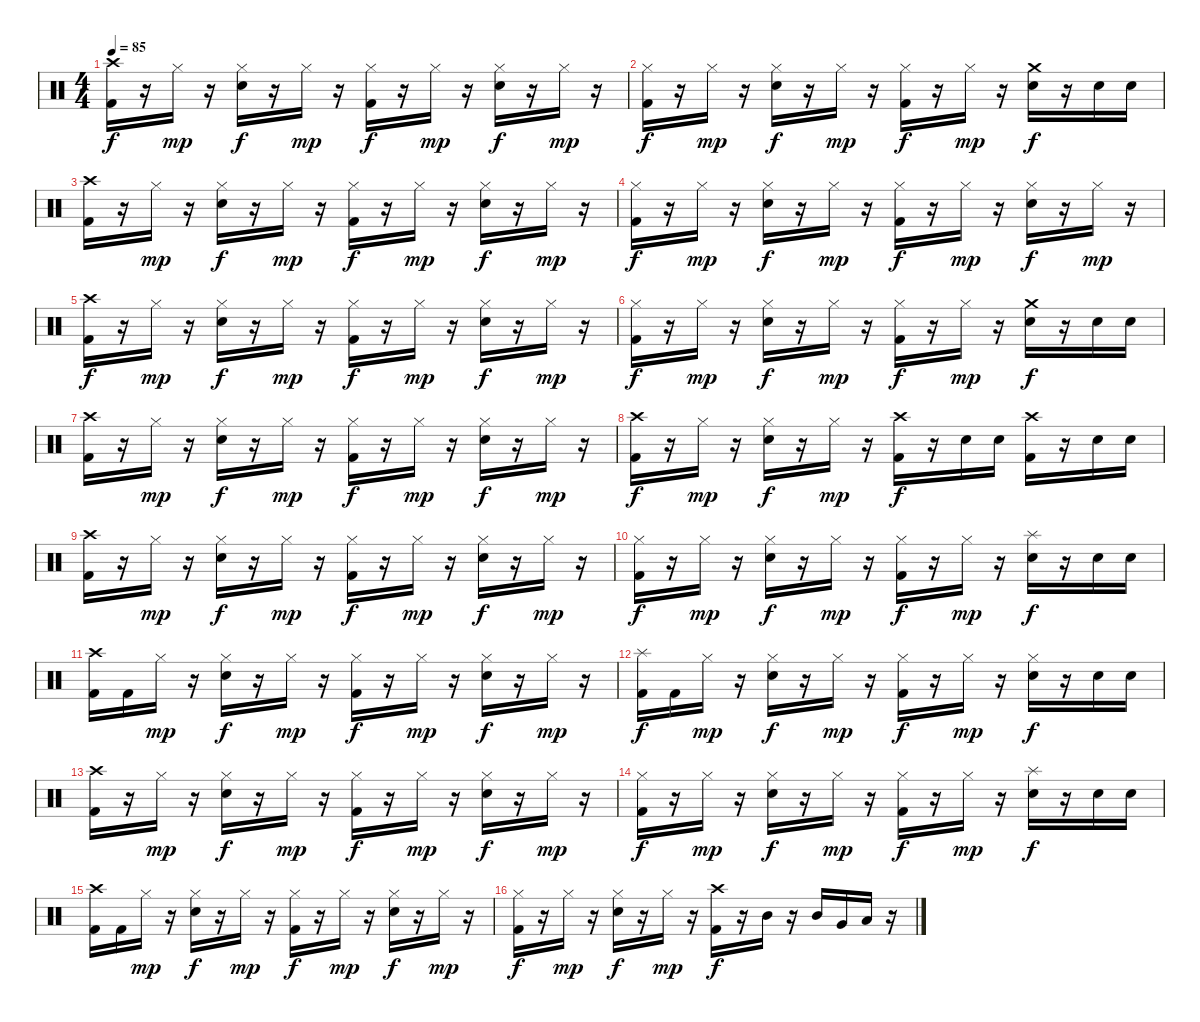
\track ("              Stefff" "          ") {instrument percussion}
\staff {score}
\articulation defaults
\ts (4 4)
\tempo 85
\clef neutral
\ks c
("Kick (hit) 2" "Crash high (hit)").16{dy f} r.16 "Hi-Hat (closed)".16{dy mp} r.16 ("Hi-Hat (closed)" "Snare (hit) 2").16{dy f} r.16 "Hi-Hat (closed)".16{dy mp} r.16 ("Hi-Hat (closed)" "Kick (hit) 2").16{dy f} r.16 "Hi-Hat (closed)".16{dy mp} r.16 ("Hi-Hat (closed)" "Snare (hit) 2").16{dy f} r.16 "Hi-Hat (closed)".16{dy mp} r.16 |
("Kick (hit) 2" "Hi-Hat (closed)").16{dy f} r.16 "Hi-Hat (closed)".16{dy mp} r.16 ("Hi-Hat (closed)" "Snare (hit) 2").16{dy f} r.16 "Hi-Hat (closed)".16{dy mp} r.16 ("Hi-Hat (closed)" "Kick (hit) 2").16{dy f} r.16 "Hi-Hat (closed)".16{dy mp} r.16 ("Crash medium (hit)" "Snare (hit) 2").16{dy f} r.16 "Snare (hit) 2".16 "Snare (hit) 2".16 |
("Kick (hit) 2" "Crash high (hit)").16 r.16 "Hi-Hat (closed)".16{dy mp} r.16 ("Hi-Hat (closed)" "Snare (hit) 2").16{dy f} r.16 "Hi-Hat (closed)".16{dy mp} r.16 ("Hi-Hat (closed)" "Kick (hit) 2").16{dy f} r.16 "Hi-Hat (closed)".16{dy mp} r.16 ("Hi-Hat (closed)" "Snare (hit) 2").16{dy f} r.16 "Hi-Hat (closed)".16{dy mp} r.16 |
("Kick (hit) 2" "Hi-Hat (closed)").16{dy f} r.16 "Hi-Hat (closed)".16{dy mp} r.16 ("Hi-Hat (closed)" "Snare (hit) 2").16{dy f} r.16 "Hi-Hat (closed)".16{dy mp} r.16 ("Hi-Hat (closed)" "Kick (hit) 2").16{dy f} r.16 "Hi-Hat (closed)".16{dy mp} r.16 ("Hi-Hat (closed)" "Snare (hit) 2").16{dy f} r.16 "Hi-Hat (closed)".16{dy mp} r.16 |
("Kick (hit) 2" "Crash high (hit)").16{dy f} r.16 "Hi-Hat (closed)".16{dy mp} r.16 ("Hi-Hat (closed)" "Snare (hit) 2").16{dy f} r.16 "Hi-Hat (closed)".16{dy mp} r.16 ("Hi-Hat (closed)" "Kick (hit) 2").16{dy f} r.16 "Hi-Hat (closed)".16{dy mp} r.16 ("Hi-Hat (closed)" "Snare (hit) 2").16{dy f} r.16 "Hi-Hat (closed)".16{dy mp} r.16 |
("Kick (hit) 2" "Hi-Hat (closed)").16{dy f} r.16 "Hi-Hat (closed)".16{dy mp} r.16 ("Hi-Hat (closed)" "Snare (hit) 2").16{dy f} r.16 "Hi-Hat (closed)".16{dy mp} r.16 ("Hi-Hat (closed)" "Kick (hit) 2").16{dy f} r.16 "Hi-Hat (closed)".16{dy mp} r.16 ("Crash medium (hit)" "Snare (hit) 2").16{dy f} r.16 "Snare (hit) 2".16 "Snare (hit) 2".16 |
("Kick (hit) 2" "Crash high (hit)").16 r.16 "Hi-Hat (closed)".16{dy mp} r.16 ("Hi-Hat (closed)" "Snare (hit) 2").16{dy f} r.16 "Hi-Hat (closed)".16{dy mp} r.16 ("Hi-Hat (closed)" "Kick (hit) 2").16{dy f} r.16 "Hi-Hat (closed)".16{dy mp} r.16 ("Hi-Hat (closed)" "Snare (hit) 2").16{dy f} r.16 "Hi-Hat (closed)".16{dy mp} r.16 |
("Kick (hit) 2" "Crash high (hit)").16{dy f} r.16 "Hi-Hat (closed)".16{dy mp} r.16 ("Hi-Hat (closed)" "Snare (hit) 2").16{dy f} r.16 "Hi-Hat (closed)".16{dy mp} r.16 ("Crash high (hit)" "Kick (hit) 2").16{dy f} r.16 "Snare (hit) 2".16 "Snare (hit) 2".16 ("Crash high (hit)" "Kick (hit) 2").16 r.16 "Snare (hit) 2".16 "Snare (hit) 2".16 |
("Kick (hit) 2" "Crash high (hit)").16 r.16 "Hi-Hat (closed)".16{dy mp} r.16 ("Hi-Hat (closed)" "Snare (hit) 2").16{dy f} r.16 "Hi-Hat (closed)".16{dy mp} r.16 ("Hi-Hat (closed)" "Kick (hit) 2").16{dy f} r.16 "Hi-Hat (closed)".16{dy mp} r.16 ("Hi-Hat (closed)" "Snare (hit) 2").16{dy f} r.16 "Hi-Hat (closed)".16{dy mp} r.16 |
("Kick (hit) 2" "Hi-Hat (closed)").16{dy f} r.16 "Hi-Hat (closed)".16{dy mp} r.16 ("Hi-Hat (closed)" "Snare (hit) 2").16{dy f} r.16 "Hi-Hat (closed)".16{dy mp} r.16 ("Hi-Hat (closed)" "Kick (hit) 2").16{dy f} r.16 "Hi-Hat (closed)".16{dy mp} r.16 ("Splash (hit)" "Snare (hit) 2").16{dy f} r.16 "Snare (hit) 2".16 "Snare (hit) 2".16 |
("Kick (hit) 2" "Crash high (hit)").16 "Kick (hit) 2".16 "Hi-Hat (closed)".16{dy mp} r.16 ("Hi-Hat (closed)" "Snare (hit) 2").16{dy f} r.16 "Hi-Hat (closed)".16{dy mp} r.16 ("Hi-Hat (closed)" "Kick (hit) 2").16{dy f} r.16 "Hi-Hat (closed)".16{dy mp} r.16 ("Hi-Hat (closed)" "Snare (hit) 2").16{dy f} r.16 "Hi-Hat (closed)".16{dy mp} r.16 |
("Kick (hit) 2" "Splash (hit)").16{dy f} "Kick (hit) 2".16 "Hi-Hat (closed)".16{dy mp} r.16 ("Hi-Hat (closed)" "Snare (hit) 2").16{dy f} r.16 "Hi-Hat (closed)".16{dy mp} r.16 ("Hi-Hat (closed)" "Kick (hit) 2").16{dy f} r.16 "Hi-Hat (closed)".16{dy mp} r.16 ("Hi-Hat (closed)" "Snare (hit) 2").16{dy f} r.16 "Snare (hit) 2".16 "Snare (hit) 2".16 |
("Kick (hit) 2" "Crash high (hit)").16 r.16 "Hi-Hat (closed)".16{dy mp} r.16 ("Hi-Hat (closed)" "Snare (hit) 2").16{dy f} r.16 "Hi-Hat (closed)".16{dy mp} r.16 ("Hi-Hat (closed)" "Kick (hit) 2").16{dy f} r.16 "Hi-Hat (closed)".16{dy mp} r.16 ("Hi-Hat (closed)" "Snare (hit) 2").16{dy f} r.16 "Hi-Hat (closed)".16{dy mp} r.16 |
("Kick (hit) 2" "Hi-Hat (closed)").16{dy f} r.16 "Hi-Hat (closed)".16{dy mp} r.16 ("Hi-Hat (closed)" "Snare (hit) 2").16{dy f} r.16 "Hi-Hat (closed)".16{dy mp} r.16 ("Hi-Hat (closed)" "Kick (hit) 2").16{dy f} r.16 "Hi-Hat (closed)".16{dy mp} r.16 ("Splash (hit)" "Snare (hit) 2").16{dy f} r.16 "Snare (hit) 2".16 "Snare (hit) 2".16 |
("Kick (hit) 2" "Crash high (hit)").16 "Kick (hit) 2".16 "Hi-Hat (closed)".16{dy mp} r.16 ("Hi-Hat (closed)" "Snare (hit) 2").16{dy f} r.16 "Hi-Hat (closed)".16{dy mp} r.16 ("Hi-Hat (closed)" "Kick (hit) 2").16{dy f} r.16 "Hi-Hat (closed)".16{dy mp} r.16 ("Hi-Hat (closed)" "Snare (hit) 2").16{dy f} r.16 "Hi-Hat (closed)".16{dy mp} r.16 |
("Kick (hit) 2" "Hi-Hat (closed)").16{dy f} r.16 "Hi-Hat (closed)".16{dy mp} r.16 ("Hi-Hat (closed)" "Snare (hit) 2").16{dy f} r.16 "Hi-Hat (closed)".16{dy mp} r.16 ("Crash high (hit)" "Kick (hit) 2").16{dy f} r.16 "Mid Tom (hit)".16 r.16 "Mid Tom (hit)".16 "Very Low Tom (hit)".16 "Low Floor Tom (hit)".16 r.16
